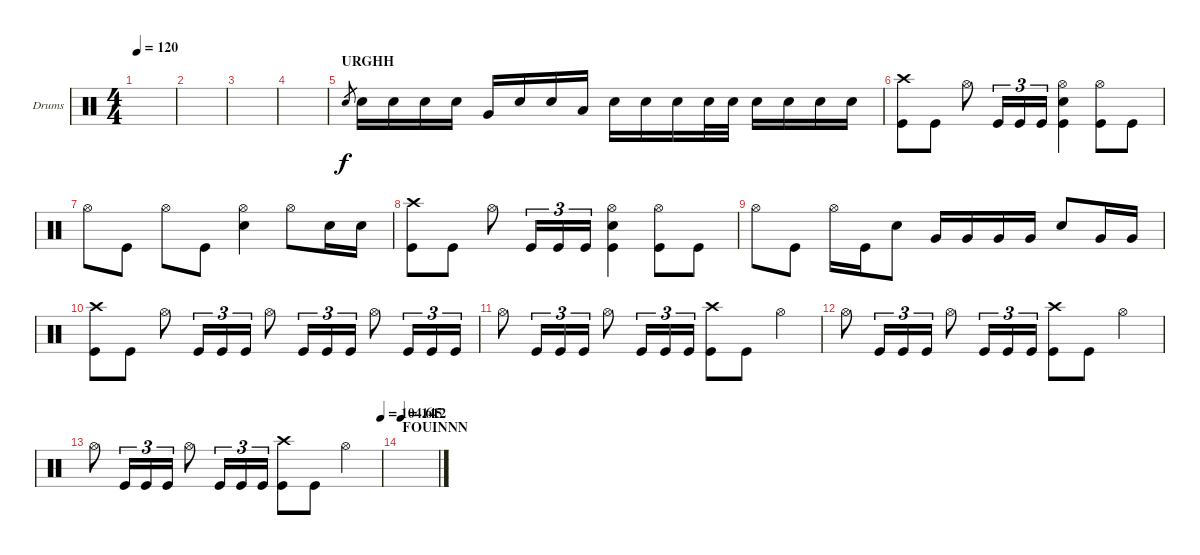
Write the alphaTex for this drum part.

\defaultSystemsLayout 4
\bracketExtendMode groupsimilarinstruments
\firstSystemTrackNameOrientation horizontal
\otherSystemsTrackNameOrientation horizontal
\track ("Drum's" "Drums") {instrument percussion}
\staff {score}
\articulation defaults
\ts (4 4)
\tempo 120
\clef neutral
\ks c
|
|
|
|
\section ("" "URGHH ")
"Snare (hit) 2".8{gr} "Snare (hit) 2".16{dy f} "Snare (hit) 2".16 "Snare (hit) 2".16 "Snare (hit) 2".16 "Very Low Tom (hit)".16 "Snare (hit) 2".16 "Snare (hit) 2".16 "Low Tom (hit)".16 "Snare (hit) 2".16 "Snare (hit) 2".16 "Snare (hit) 2".16 "Snare (hit) 2".32 "Snare (hit) 2".32 "Snare (hit) 2".16 "Snare (hit) 2".16 "Snare (hit) 2".16 "Snare (hit) 2".16 |
\scale
0.474178 ("Crash high (hit)" "Kick (hit)").8 "Kick (hit)".8 "Hi-Hat (open)".8 "Kick (hit)".16{tu (3 2)} "Kick (hit)".16{tu (3 2)} "Kick (hit)".16{tu (3 2)} ("Hi-Hat (open)" "Snare (hit) 2" "Kick (hit)").4 ("Hi-Hat (open)" "Kick (hit)").8 "Kick (hit)".8 |
\scale
0.262911 "Hi-Hat (open)".8 "Kick (hit)".8 "Hi-Hat (open)".8 "Kick (hit)".8 ("Hi-Hat (open)" "Snare (hit) 2").4 "Hi-Hat (open)".8 "Snare (hit) 2".16 "Snare (hit) 2".16 |
\scale
0.262911 ("Crash high (hit)" "Kick (hit)").8 "Kick (hit)".8 "Hi-Hat (open)".8 "Kick (hit)".16{tu (3 2)} "Kick (hit)".16{tu (3 2)} "Kick (hit)".16{tu (3 2)} ("Hi-Hat (open)" "Snare (hit) 2" "Kick (hit)").4 ("Hi-Hat (open)" "Kick (hit)").8 "Kick (hit)".8 |
\scale
0.333333 "Hi-Hat (open)".8 "Kick (hit)".8 "Hi-Hat (open)".16 "Kick (hit)".16 "Snare (hit) 2".8 "Very Low Tom (hit)".16 "Very Low Tom (hit)".16 "Very Low Tom (hit)".16 "Very Low Tom (hit)".16 "Snare (hit) 2".8 "Very Low Tom (hit)".16 "Very Low Tom (hit)".16 |
\scale
0.333333 ("Crash high (hit)" "Kick (hit)").8 "Kick (hit)".8 "Hi-Hat (open)".8 "Kick (hit)".16{tu (3 2)} "Kick (hit)".16{tu (3 2)} "Kick (hit)".16{tu (3 2)} "Hi-Hat (open)".8 "Kick (hit)".16{tu (3 2)} "Kick (hit)".16{tu (3 2)} "Kick (hit)".16{tu (3 2)} "Hi-Hat (open)".8 "Kick (hit)".16{tu (3 2)} "Kick (hit)".16{tu (3 2)} "Kick (hit)".16{tu (3 2)} |
\scale
0.333333 "Hi-Hat (open)".8 "Kick (hit)".16{tu (3 2)} "Kick (hit)".16{tu (3 2)} "Kick (hit)".16{tu (3 2)} "Hi-Hat (open)".8 "Kick (hit)".16{tu (3 2)} "Kick (hit)".16{tu (3 2)} "Kick (hit)".16{tu (3 2)} ("Crash high (hit)" "Kick (hit)").8 "Kick (hit)".8 "Hi-Hat (open)".4 |
\scale
0.333333 "Hi-Hat (open)".8 "Kick (hit)".16{tu (3 2)} "Kick (hit)".16{tu (3 2)} "Kick (hit)".16{tu (3 2)} "Hi-Hat (open)".8 "Kick (hit)".16{tu (3 2)} "Kick (hit)".16{tu (3 2)} "Kick (hit)".16{tu (3 2)} ("Crash high (hit)" "Kick (hit)").8 "Kick (hit)".8 "Hi-Hat (open)".4 |
\tempo (104.612 1)
\scale
0.333333 "Hi-Hat (open)".8 "Kick (hit)".16{tu (3 2)} "Kick (hit)".16{tu (3 2)} "Kick (hit)".16{tu (3 2)} "Hi-Hat (open)".8 "Kick (hit)".16{tu (3 2)} "Kick (hit)".16{tu (3 2)} "Kick (hit)".16{tu (3 2)} ("Crash high (hit)" "Kick (hit)").8 "Kick (hit)".8 "Hi-Hat (open)".4 |
\section ("" "FOUINNN")
\tempo 145
\scale
0.333333 |
|
\scale
0.333333
